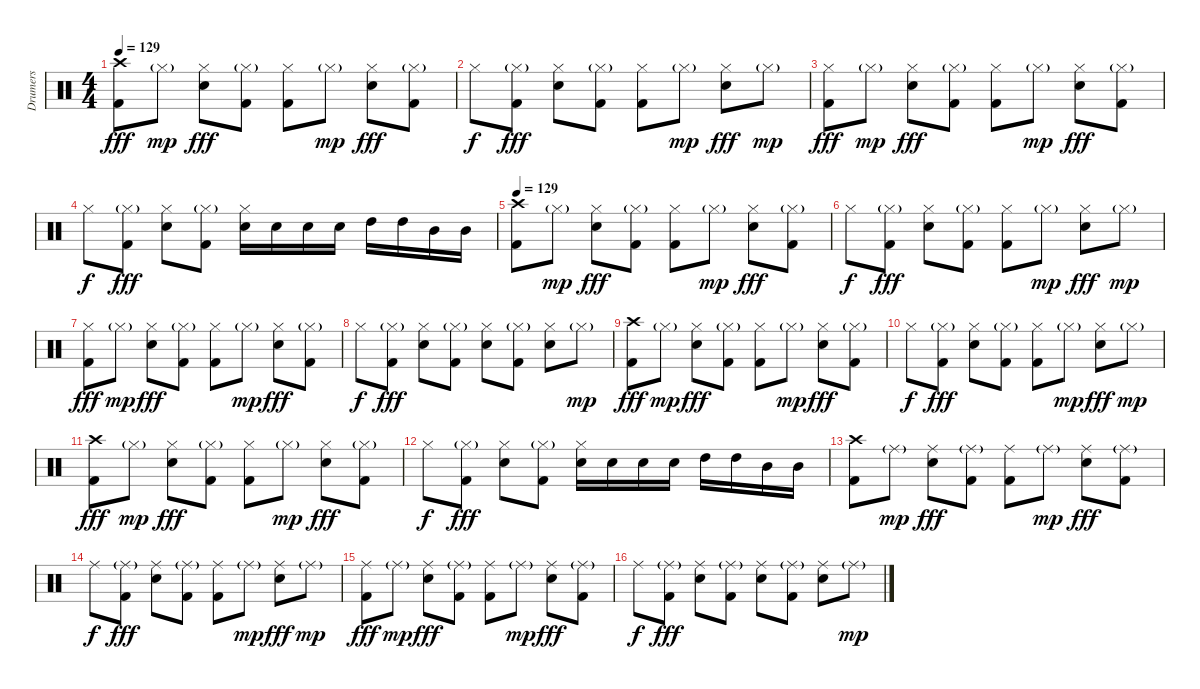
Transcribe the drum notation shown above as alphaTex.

\track ("Drumers" "Drumers") {instrument percussion}
\staff {score}
\articulation defaults
\ts (4 4)
\tempo 129
\clef neutral
\ks c
("Crash high (hit)" "Kick (hit) 2").8{dy fff} "Hi-Hat (closed)"{g}.8{dy mp} ("Hi-Hat (closed)" "Electric Snare (hit)").8{dy fff} ("Hi-Hat (closed)"{g} "Kick (hit) 2").8 ("Hi-Hat (closed)" "Kick (hit) 2").8 "Hi-Hat (closed)"{g}.8{dy mp} ("Hi-Hat (closed)" "Electric Snare (hit)").8{dy fff} ("Hi-Hat (closed)"{g} "Kick (hit) 2").8 |
"Hi-Hat (closed)".8{dy f} ("Hi-Hat (closed)"{g} "Kick (hit) 2").8{dy fff} ("Hi-Hat (closed)" "Electric Snare (hit)").8 ("Hi-Hat (closed)"{g} "Kick (hit) 2").8 ("Hi-Hat (closed)" "Kick (hit) 2").8 "Hi-Hat (closed)"{g}.8{dy mp} ("Hi-Hat (closed)" "Electric Snare (hit)").8{dy fff} "Hi-Hat (closed)"{g}.8{dy mp} |
("Hi-Hat (closed)" "Kick (hit) 2").8{dy fff} "Hi-Hat (closed)"{g}.8{dy mp} ("Hi-Hat (closed)" "Electric Snare (hit)").8{dy fff} ("Hi-Hat (closed)"{g} "Kick (hit) 2").8 ("Hi-Hat (closed)" "Kick (hit) 2").8 "Hi-Hat (closed)"{g}.8{dy mp} ("Hi-Hat (closed)" "Electric Snare (hit)").8{dy fff} ("Hi-Hat (closed)"{g} "Kick (hit) 2").8 |
"Hi-Hat (closed)".8{dy f} ("Hi-Hat (closed)"{g} "Kick (hit) 2").8{dy fff} ("Hi-Hat (closed)" "Electric Snare (hit)").8 ("Hi-Hat (closed)"{g} "Kick (hit) 2").8 ("Hi-Hat (closed)" "Electric Snare (hit)").16 "Electric Snare (hit)".16 "Electric Snare (hit)".16 "Electric Snare (hit)".16 "High Tom (hit)".16 "High Tom (hit)".16 "Mid Tom (hit)".16 "Mid Tom (hit)".16 |
\tempo 129
("Crash high (hit)" "Kick (hit) 2").8 "Hi-Hat (closed)"{g}.8{dy mp} ("Hi-Hat (closed)" "Electric Snare (hit)").8{dy fff} ("Hi-Hat (closed)"{g} "Kick (hit) 2").8 ("Hi-Hat (closed)" "Kick (hit) 2").8 "Hi-Hat (closed)"{g}.8{dy mp} ("Hi-Hat (closed)" "Electric Snare (hit)").8{dy fff} ("Hi-Hat (closed)"{g} "Kick (hit) 2").8 |
"Hi-Hat (closed)".8{dy f} ("Hi-Hat (closed)"{g} "Kick (hit) 2").8{dy fff} ("Hi-Hat (closed)" "Electric Snare (hit)").8 ("Hi-Hat (closed)"{g} "Kick (hit) 2").8 ("Hi-Hat (closed)" "Kick (hit) 2").8 "Hi-Hat (closed)"{g}.8{dy mp} ("Hi-Hat (closed)" "Electric Snare (hit)").8{dy fff} "Hi-Hat (closed)"{g}.8{dy mp} |
("Hi-Hat (closed)" "Kick (hit) 2").8{dy fff} "Hi-Hat (closed)"{g}.8{dy mp} ("Hi-Hat (closed)" "Electric Snare (hit)").8{dy fff} ("Hi-Hat (closed)"{g} "Kick (hit) 2").8 ("Hi-Hat (closed)" "Kick (hit) 2").8 "Hi-Hat (closed)"{g}.8{dy mp} ("Hi-Hat (closed)" "Electric Snare (hit)").8{dy fff} ("Hi-Hat (closed)"{g} "Kick (hit) 2").8 |
"Hi-Hat (closed)".8{dy f} ("Hi-Hat (closed)"{g} "Kick (hit) 2").8{dy fff} ("Hi-Hat (closed)" "Electric Snare (hit)").8 ("Hi-Hat (closed)"{g} "Kick (hit) 2").8 ("Hi-Hat (closed)" "Electric Snare (hit)").8 ("Hi-Hat (closed)"{g} "Kick (hit) 2").8 ("Hi-Hat (closed)" "Electric Snare (hit)").8 "Hi-Hat (closed)"{g}.8{dy mp} |
("Crash high (hit)" "Kick (hit) 2").8{dy fff} "Hi-Hat (closed)"{g}.8{dy mp} ("Hi-Hat (closed)" "Electric Snare (hit)").8{dy fff} ("Hi-Hat (closed)"{g} "Kick (hit) 2").8 ("Hi-Hat (closed)" "Kick (hit) 2").8 "Hi-Hat (closed)"{g}.8{dy mp} ("Hi-Hat (closed)" "Electric Snare (hit)").8{dy fff} ("Hi-Hat (closed)"{g} "Kick (hit) 2").8 |
"Hi-Hat (closed)".8{dy f} ("Hi-Hat (closed)"{g} "Kick (hit) 2").8{dy fff} ("Hi-Hat (closed)" "Electric Snare (hit)").8 ("Hi-Hat (closed)"{g} "Kick (hit) 2").8 ("Hi-Hat (closed)" "Kick (hit) 2").8 "Hi-Hat (closed)"{g}.8{dy mp} ("Hi-Hat (closed)" "Electric Snare (hit)").8{dy fff} "Hi-Hat (closed)"{g}.8{dy mp} |
("Crash high (hit)" "Kick (hit) 2").8{dy fff} "Hi-Hat (closed)"{g}.8{dy mp} ("Hi-Hat (closed)" "Electric Snare (hit)").8{dy fff} ("Hi-Hat (closed)"{g} "Kick (hit) 2").8 ("Hi-Hat (closed)" "Kick (hit) 2").8 "Hi-Hat (closed)"{g}.8{dy mp} ("Hi-Hat (closed)" "Electric Snare (hit)").8{dy fff} ("Hi-Hat (closed)"{g} "Kick (hit) 2").8 |
"Hi-Hat (closed)".8{dy f} ("Hi-Hat (closed)"{g} "Kick (hit) 2").8{dy fff} ("Hi-Hat (closed)" "Electric Snare (hit)").8 ("Hi-Hat (closed)"{g} "Kick (hit) 2").8 ("Hi-Hat (closed)" "Electric Snare (hit)").16 "Electric Snare (hit)".16 "Electric Snare (hit)".16 "Electric Snare (hit)".16 "High Tom (hit)".16 "High Tom (hit)".16 "Mid Tom (hit)".16 "Mid Tom (hit)".16 |
("Crash high (hit)" "Kick (hit) 2").8 "Ride (middle)"{g}.8{dy mp} ("Ride (middle)" "Electric Snare (hit)").8{dy fff} ("Ride (middle)"{g} "Kick (hit) 2").8 ("Ride (middle)" "Kick (hit) 2").8 "Ride (middle)"{g}.8{dy mp} ("Ride (middle)" "Electric Snare (hit)").8{dy fff} ("Ride (middle)"{g} "Kick (hit) 2").8 |
"Ride (middle)".8{dy f} ("Ride (middle)"{g} "Kick (hit) 2").8{dy fff} ("Ride (middle)" "Electric Snare (hit)").8 ("Ride (middle)"{g} "Kick (hit) 2").8 ("Ride (middle)" "Kick (hit) 2").8 "Ride (middle)"{g}.8{dy mp} ("Ride (middle)" "Electric Snare (hit)").8{dy fff} "Ride (middle)"{g}.8{dy mp} |
("Ride (middle)" "Kick (hit) 2").8{dy fff} "Ride (middle)"{g}.8{dy mp} ("Ride (middle)" "Electric Snare (hit)").8{dy fff} ("Ride (middle)"{g} "Kick (hit) 2").8 ("Ride (middle)" "Kick (hit) 2").8 "Ride (middle)"{g}.8{dy mp} ("Ride (middle)" "Electric Snare (hit)").8{dy fff} ("Ride (middle)"{g} "Kick (hit) 2").8 |
"Ride (middle)".8{dy f} ("Ride (middle)"{g} "Kick (hit) 2").8{dy fff} ("Ride (middle)" "Electric Snare (hit)").8 ("Ride (middle)"{g} "Kick (hit) 2").8 ("Ride (middle)" "Electric Snare (hit)").8 ("Ride (middle)"{g} "Kick (hit) 2").8 ("Ride (middle)" "Electric Snare (hit)").8 "Ride (middle)"{g}.8{dy mp}
